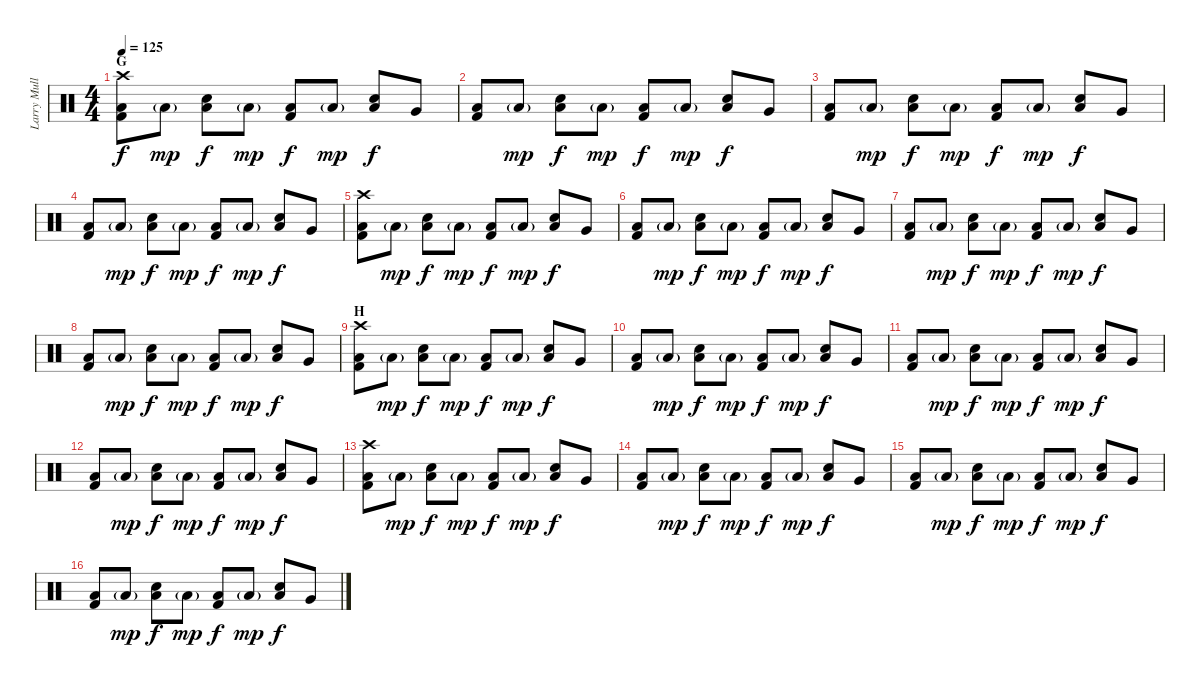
\track ("Larry Mullen Jr" "Larry Mull") {instrument percussion}
\staff {score}
\articulation defaults
\ts (4 4)
\section ("" "G")
\tempo 125
\clef neutral
\ks c
("Crash high (hit)" "Kick (hit) 2" "Low Floor Tom (hit)").8{dy f} "Low Floor Tom (hit)"{g}.8{dy mp} ("Snare (hit) 2" "Low Floor Tom (hit)").8{dy f} "Low Floor Tom (hit)"{g}.8{dy mp} ("Kick (hit) 2" "Low Floor Tom (hit)").8{dy f} "Low Floor Tom (hit)"{g}.8{dy mp} ("Snare (hit) 2" "Low Floor Tom (hit)").8{dy f} "Very Low Tom (hit)".8 |
("Kick (hit) 2" "Low Floor Tom (hit)").8 "Low Floor Tom (hit)"{g}.8{dy mp} ("Snare (hit) 2" "Low Floor Tom (hit)").8{dy f} "Low Floor Tom (hit)"{g}.8{dy mp} ("Kick (hit) 2" "Low Floor Tom (hit)").8{dy f} "Low Floor Tom (hit)"{g}.8{dy mp} ("Snare (hit) 2" "Low Floor Tom (hit)").8{dy f} "Very Low Tom (hit)".8 |
("Kick (hit) 2" "Low Floor Tom (hit)").8 "Low Floor Tom (hit)"{g}.8{dy mp} ("Snare (hit) 2" "Low Floor Tom (hit)").8{dy f} "Low Floor Tom (hit)"{g}.8{dy mp} ("Kick (hit) 2" "Low Floor Tom (hit)").8{dy f} "Low Floor Tom (hit)"{g}.8{dy mp} ("Snare (hit) 2" "Low Floor Tom (hit)").8{dy f} "Very Low Tom (hit)".8 |
("Kick (hit) 2" "Low Floor Tom (hit)").8 "Low Floor Tom (hit)"{g}.8{dy mp} ("Snare (hit) 2" "Low Floor Tom (hit)").8{dy f} "Low Floor Tom (hit)"{g}.8{dy mp} ("Kick (hit) 2" "Low Floor Tom (hit)").8{dy f} "Low Floor Tom (hit)"{g}.8{dy mp} ("Snare (hit) 2" "Low Floor Tom (hit)").8{dy f} "Very Low Tom (hit)".8 |
("Crash high (hit)" "Kick (hit) 2" "Low Floor Tom (hit)").8 "Low Floor Tom (hit)"{g}.8{dy mp} ("Snare (hit) 2" "Low Floor Tom (hit)").8{dy f} "Low Floor Tom (hit)"{g}.8{dy mp} ("Kick (hit) 2" "Low Floor Tom (hit)").8{dy f} "Low Floor Tom (hit)"{g}.8{dy mp} ("Snare (hit) 2" "Low Floor Tom (hit)").8{dy f} "Very Low Tom (hit)".8 |
("Kick (hit) 2" "Low Floor Tom (hit)").8 "Low Floor Tom (hit)"{g}.8{dy mp} ("Snare (hit) 2" "Low Floor Tom (hit)").8{dy f} "Low Floor Tom (hit)"{g}.8{dy mp} ("Kick (hit) 2" "Low Floor Tom (hit)").8{dy f} "Low Floor Tom (hit)"{g}.8{dy mp} ("Snare (hit) 2" "Low Floor Tom (hit)").8{dy f} "Very Low Tom (hit)".8 |
("Kick (hit) 2" "Low Floor Tom (hit)").8 "Low Floor Tom (hit)"{g}.8{dy mp} ("Snare (hit) 2" "Low Floor Tom (hit)").8{dy f} "Low Floor Tom (hit)"{g}.8{dy mp} ("Kick (hit) 2" "Low Floor Tom (hit)").8{dy f} "Low Floor Tom (hit)"{g}.8{dy mp} ("Snare (hit) 2" "Low Floor Tom (hit)").8{dy f} "Very Low Tom (hit)".8 |
("Kick (hit) 2" "Low Floor Tom (hit)").8 "Low Floor Tom (hit)"{g}.8{dy mp} ("Snare (hit) 2" "Low Floor Tom (hit)").8{dy f} "Low Floor Tom (hit)"{g}.8{dy mp} ("Kick (hit) 2" "Low Floor Tom (hit)").8{dy f} "Low Floor Tom (hit)"{g}.8{dy mp} ("Snare (hit) 2" "Low Floor Tom (hit)").8{dy f} "Very Low Tom (hit)".8 |
\section ("" "H")
("Crash high (hit)" "Kick (hit) 2" "Low Floor Tom (hit)").8 "Low Floor Tom (hit)"{g}.8{dy mp} ("Snare (hit) 2" "Low Floor Tom (hit)").8{dy f} "Low Floor Tom (hit)"{g}.8{dy mp} ("Kick (hit) 2" "Low Floor Tom (hit)").8{dy f} "Low Floor Tom (hit)"{g}.8{dy mp} ("Snare (hit) 2" "Low Floor Tom (hit)").8{dy f} "Very Low Tom (hit)".8 |
("Kick (hit) 2" "Low Floor Tom (hit)").8 "Low Floor Tom (hit)"{g}.8{dy mp} ("Snare (hit) 2" "Low Floor Tom (hit)").8{dy f} "Low Floor Tom (hit)"{g}.8{dy mp} ("Kick (hit) 2" "Low Floor Tom (hit)").8{dy f} "Low Floor Tom (hit)"{g}.8{dy mp} ("Snare (hit) 2" "Low Floor Tom (hit)").8{dy f} "Very Low Tom (hit)".8 |
("Kick (hit) 2" "Low Floor Tom (hit)").8 "Low Floor Tom (hit)"{g}.8{dy mp} ("Snare (hit) 2" "Low Floor Tom (hit)").8{dy f} "Low Floor Tom (hit)"{g}.8{dy mp} ("Kick (hit) 2" "Low Floor Tom (hit)").8{dy f} "Low Floor Tom (hit)"{g}.8{dy mp} ("Snare (hit) 2" "Low Floor Tom (hit)").8{dy f} "Very Low Tom (hit)".8 |
("Kick (hit) 2" "Low Floor Tom (hit)").8 "Low Floor Tom (hit)"{g}.8{dy mp} ("Snare (hit) 2" "Low Floor Tom (hit)").8{dy f} "Low Floor Tom (hit)"{g}.8{dy mp} ("Kick (hit) 2" "Low Floor Tom (hit)").8{dy f} "Low Floor Tom (hit)"{g}.8{dy mp} ("Snare (hit) 2" "Low Floor Tom (hit)").8{dy f} "Very Low Tom (hit)".8 |
("Crash high (hit)" "Kick (hit) 2" "Low Floor Tom (hit)").8 "Low Floor Tom (hit)"{g}.8{dy mp} ("Snare (hit) 2" "Low Floor Tom (hit)").8{dy f} "Low Floor Tom (hit)"{g}.8{dy mp} ("Kick (hit) 2" "Low Floor Tom (hit)").8{dy f} "Low Floor Tom (hit)"{g}.8{dy mp} ("Snare (hit) 2" "Low Floor Tom (hit)").8{dy f} "Very Low Tom (hit)".8 |
("Kick (hit) 2" "Low Floor Tom (hit)").8 "Low Floor Tom (hit)"{g}.8{dy mp} ("Snare (hit) 2" "Low Floor Tom (hit)").8{dy f} "Low Floor Tom (hit)"{g}.8{dy mp} ("Kick (hit) 2" "Low Floor Tom (hit)").8{dy f} "Low Floor Tom (hit)"{g}.8{dy mp} ("Snare (hit) 2" "Low Floor Tom (hit)").8{dy f} "Very Low Tom (hit)".8 |
("Kick (hit) 2" "Low Floor Tom (hit)").8 "Low Floor Tom (hit)"{g}.8{dy mp} ("Snare (hit) 2" "Low Floor Tom (hit)").8{dy f} "Low Floor Tom (hit)"{g}.8{dy mp} ("Kick (hit) 2" "Low Floor Tom (hit)").8{dy f} "Low Floor Tom (hit)"{g}.8{dy mp} ("Snare (hit) 2" "Low Floor Tom (hit)").8{dy f} "Very Low Tom (hit)".8 |
("Kick (hit) 2" "Low Floor Tom (hit)").8 "Low Floor Tom (hit)"{g}.8{dy mp} ("Snare (hit) 2" "Low Floor Tom (hit)").8{dy f} "Low Floor Tom (hit)"{g}.8{dy mp} ("Kick (hit) 2" "Low Floor Tom (hit)").8{dy f} "Low Floor Tom (hit)"{g}.8{dy mp} ("Snare (hit) 2" "Low Floor Tom (hit)").8{dy f} "Very Low Tom (hit)".8
